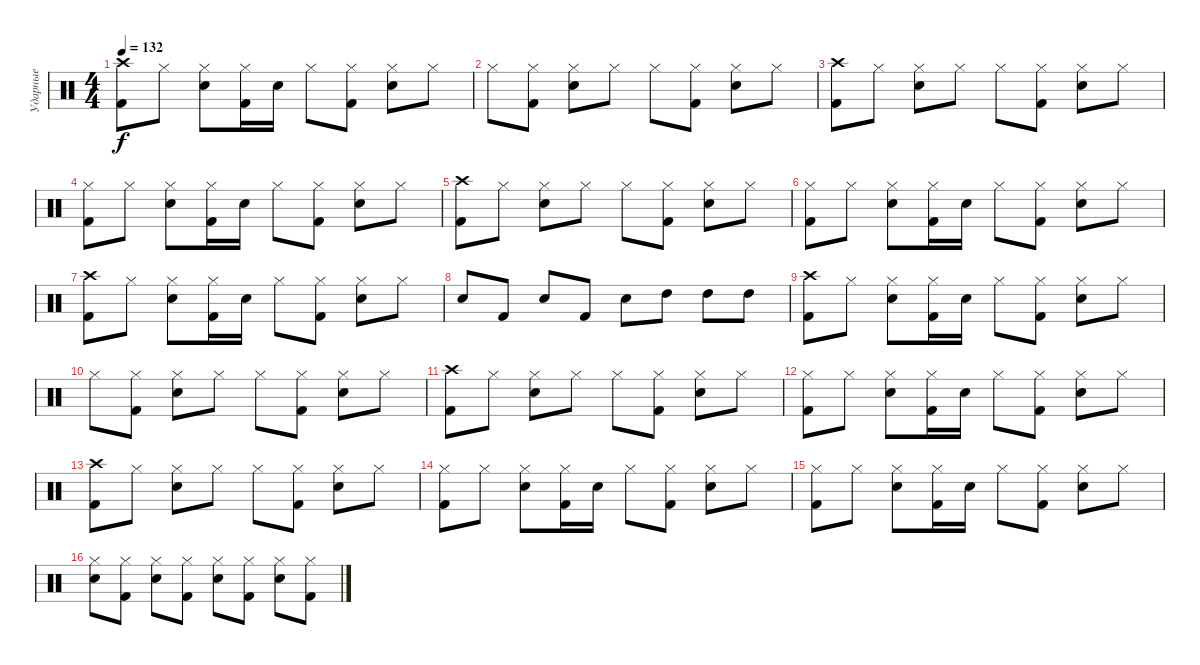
\track ("Ударные" "Ударные") {instrument percussion}
\staff {score}
\articulation defaults
\ts (4 4)
\tempo 132
\clef neutral
\ks c
("Kick (hit) 2" "Crash high (hit)").8{dy f} "Hi-Hat (closed)".8 ("Electric Snare (hit)" "Hi-Hat (closed)").8 ("Kick (hit) 2" "Hi-Hat (closed)").16 "Electric Snare (hit)".16 "Hi-Hat (closed)".8 ("Kick (hit) 2" "Hi-Hat (closed)").8 ("Electric Snare (hit)" "Hi-Hat (closed)").8 "Hi-Hat (closed)".8 |
"Hi-Hat (closed)".8 ("Kick (hit) 2" "Hi-Hat (closed)").8 ("Electric Snare (hit)" "Hi-Hat (closed)").8 "Hi-Hat (closed)".8 "Hi-Hat (closed)".8 ("Kick (hit) 2" "Hi-Hat (closed)").8 ("Electric Snare (hit)" "Hi-Hat (closed)").8 "Hi-Hat (closed)".8 |
("Kick (hit) 2" "Crash high (hit)").8 "Hi-Hat (closed)".8 ("Electric Snare (hit)" "Hi-Hat (closed)").8 "Hi-Hat (closed)".8 "Hi-Hat (closed)".8 ("Kick (hit) 2" "Hi-Hat (closed)").8 ("Electric Snare (hit)" "Hi-Hat (closed)").8 "Hi-Hat (closed)".8 |
("Kick (hit) 2" "Hi-Hat (closed)").8 "Hi-Hat (closed)".8 ("Electric Snare (hit)" "Hi-Hat (closed)").8 ("Kick (hit) 2" "Hi-Hat (closed)").16 "Electric Snare (hit)".16 "Hi-Hat (closed)".8 ("Kick (hit) 2" "Hi-Hat (closed)").8 ("Electric Snare (hit)" "Hi-Hat (closed)").8 "Hi-Hat (closed)".8 |
("Kick (hit) 2" "Crash high (hit)").8 "Hi-Hat (closed)".8 ("Electric Snare (hit)" "Hi-Hat (closed)").8 "Hi-Hat (closed)".8 "Hi-Hat (closed)".8 ("Kick (hit) 2" "Hi-Hat (closed)").8 ("Electric Snare (hit)" "Hi-Hat (closed)").8 "Hi-Hat (closed)".8 |
("Kick (hit) 2" "Hi-Hat (closed)").8 "Hi-Hat (closed)".8 ("Electric Snare (hit)" "Hi-Hat (closed)").8 ("Kick (hit) 2" "Hi-Hat (closed)").16 "Electric Snare (hit)".16 "Hi-Hat (closed)".8 ("Kick (hit) 2" "Hi-Hat (closed)").8 ("Electric Snare (hit)" "Hi-Hat (closed)").8 "Hi-Hat (closed)".8 |
("Kick (hit) 2" "Crash high (hit)").8 "Hi-Hat (closed)".8 ("Electric Snare (hit)" "Hi-Hat (closed)").8 ("Kick (hit) 2" "Hi-Hat (closed)").16 "Electric Snare (hit)".16 "Hi-Hat (closed)".8 ("Kick (hit) 2" "Hi-Hat (closed)").8 ("Electric Snare (hit)" "Hi-Hat (closed)").8 "Hi-Hat (closed)".8 |
"Electric Snare (hit)".8 "Kick (hit) 2".8 "Electric Snare (hit)".8 "Kick (hit) 2".8 "Electric Snare (hit)".8 "High Tom (hit)".8 "High Tom (hit)".8 "High Tom (hit)".8 |
("Kick (hit) 2" "Crash high (hit)").8 "Hi-Hat (closed)".8 ("Electric Snare (hit)" "Hi-Hat (closed)").8 ("Kick (hit) 2" "Hi-Hat (closed)").16 "Electric Snare (hit)".16 "Hi-Hat (closed)".8 ("Kick (hit) 2" "Hi-Hat (closed)").8 ("Electric Snare (hit)" "Hi-Hat (closed)").8 "Hi-Hat (closed)".8 |
"Hi-Hat (closed)".8 ("Kick (hit) 2" "Hi-Hat (closed)").8 ("Electric Snare (hit)" "Hi-Hat (closed)").8 "Hi-Hat (closed)".8 "Hi-Hat (closed)".8 ("Kick (hit) 2" "Hi-Hat (closed)").8 ("Electric Snare (hit)" "Hi-Hat (closed)").8 "Hi-Hat (closed)".8 |
("Kick (hit) 2" "Crash high (hit)").8 "Hi-Hat (closed)".8 ("Electric Snare (hit)" "Hi-Hat (closed)").8 "Hi-Hat (closed)".8 "Hi-Hat (closed)".8 ("Kick (hit) 2" "Hi-Hat (closed)").8 ("Electric Snare (hit)" "Hi-Hat (closed)").8 "Hi-Hat (closed)".8 |
("Kick (hit) 2" "Hi-Hat (closed)").8 "Hi-Hat (closed)".8 ("Electric Snare (hit)" "Hi-Hat (closed)").8 ("Kick (hit) 2" "Hi-Hat (closed)").16 "Electric Snare (hit)".16 "Hi-Hat (closed)".8 ("Kick (hit) 2" "Hi-Hat (closed)").8 ("Electric Snare (hit)" "Hi-Hat (closed)").8 "Hi-Hat (closed)".8 |
("Kick (hit) 2" "Crash high (hit)").8 "Hi-Hat (closed)".8 ("Electric Snare (hit)" "Hi-Hat (closed)").8 "Hi-Hat (closed)".8 "Hi-Hat (closed)".8 ("Kick (hit) 2" "Hi-Hat (closed)").8 ("Electric Snare (hit)" "Hi-Hat (closed)").8 "Hi-Hat (closed)".8 |
("Kick (hit) 2" "Hi-Hat (closed)").8 "Hi-Hat (closed)".8 ("Electric Snare (hit)" "Hi-Hat (closed)").8 ("Kick (hit) 2" "Hi-Hat (closed)").16 "Electric Snare (hit)".16 "Hi-Hat (closed)".8 ("Kick (hit) 2" "Hi-Hat (closed)").8 ("Electric Snare (hit)" "Hi-Hat (closed)").8 "Hi-Hat (closed)".8 |
("Kick (hit) 2" "Hi-Hat (closed)").8 "Hi-Hat (closed)".8 ("Electric Snare (hit)" "Hi-Hat (closed)").8 ("Kick (hit) 2" "Hi-Hat (closed)").16 "Electric Snare (hit)".16 "Hi-Hat (closed)".8 ("Kick (hit) 2" "Hi-Hat (closed)").8 ("Electric Snare (hit)" "Hi-Hat (closed)").8 "Hi-Hat (closed)".8 |
("Electric Snare (hit)" "Hi-Hat (closed)").8 ("Kick (hit) 2" "Hi-Hat (closed)").8 ("Electric Snare (hit)" "Hi-Hat (closed)").8 ("Kick (hit) 2" "Hi-Hat (closed)").8 ("Electric Snare (hit)" "Hi-Hat (closed)").8 ("Kick (hit) 2" "Hi-Hat (closed)").8 ("Electric Snare (hit)" "Hi-Hat (closed)").8 ("Kick (hit) 2" "Hi-Hat (closed)").8
